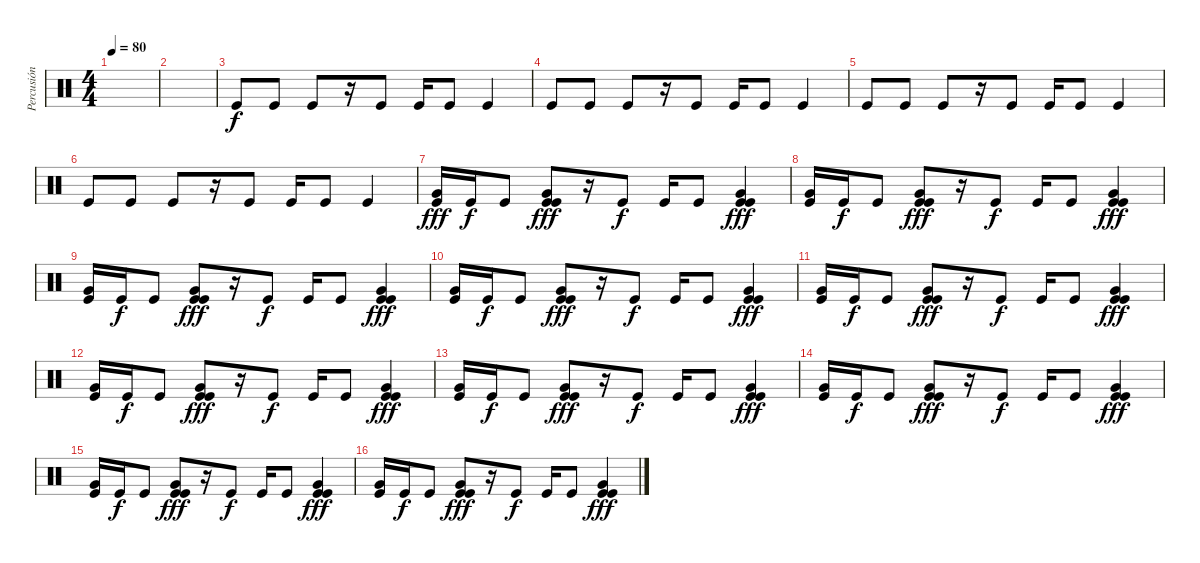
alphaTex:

\track ("Percusión" "Percusión") {instrument percussion}
\staff {score}
\articulation defaults
\ts (4 4)
\tempo 80
\clef neutral
\ks c
|
|
"Kick (hit)".8 "Kick (hit)".8 "Kick (hit)".8 r.16 "Kick (hit)".8 "Kick (hit)".16 "Kick (hit)".8 "Kick (hit)".4 |
"Kick (hit)".8 "Kick (hit)".8 "Kick (hit)".8 r.16 "Kick (hit)".8 "Kick (hit)".16 "Kick (hit)".8 "Kick (hit)".4 |
"Kick (hit)".8 "Kick (hit)".8 "Kick (hit)".8 r.16 "Kick (hit)".8 "Kick (hit)".16 "Kick (hit)".8 "Kick (hit)".4 |
"Kick (hit)".8 "Kick (hit)".8 "Kick (hit)".8 r.16 "Kick (hit)".8 "Kick (hit)".16 "Kick (hit)".8 "Kick (hit)".4 |
("Kick (hit)" "Very Low Tom (hit)").16{dy fff} "Kick (hit)".16{dy f} "Kick (hit)".8 ("Kick (hit)" "Very Low Tom (hit)" "Kick (hit)").8{dy fff} r.16 "Kick (hit)".8{dy f} "Kick (hit)".16 "Kick (hit)".8 ("Kick (hit)" "Very Low Tom (hit)" "Kick (hit)").4{dy fff} |
("Kick (hit)" "Very Low Tom (hit)").16 "Kick (hit)".16{dy f} "Kick (hit)".8 ("Kick (hit)" "Very Low Tom (hit)" "Kick (hit)").8{dy fff} r.16 "Kick (hit)".8{dy f} "Kick (hit)".16 "Kick (hit)".8 ("Kick (hit)" "Very Low Tom (hit)" "Kick (hit)").4{dy fff} |
("Kick (hit)" "Very Low Tom (hit)").16 "Kick (hit)".16{dy f} "Kick (hit)".8 ("Kick (hit)" "Very Low Tom (hit)" "Kick (hit)").8{dy fff} r.16 "Kick (hit)".8{dy f} "Kick (hit)".16 "Kick (hit)".8 ("Kick (hit)" "Very Low Tom (hit)" "Kick (hit)").4{dy fff} |
("Kick (hit)" "Very Low Tom (hit)").16 "Kick (hit)".16{dy f} "Kick (hit)".8 ("Kick (hit)" "Very Low Tom (hit)" "Kick (hit)").8{dy fff} r.16 "Kick (hit)".8{dy f} "Kick (hit)".16 "Kick (hit)".8 ("Kick (hit)" "Very Low Tom (hit)" "Kick (hit)").4{dy fff} |
("Kick (hit)" "Very Low Tom (hit)").16 "Kick (hit)".16{dy f} "Kick (hit)".8 ("Kick (hit)" "Very Low Tom (hit)" "Kick (hit)").8{dy fff} r.16 "Kick (hit)".8{dy f} "Kick (hit)".16 "Kick (hit)".8 ("Kick (hit)" "Very Low Tom (hit)" "Kick (hit)").4{dy fff} |
("Kick (hit)" "Very Low Tom (hit)").16 "Kick (hit)".16{dy f} "Kick (hit)".8 ("Kick (hit)" "Very Low Tom (hit)" "Kick (hit)").8{dy fff} r.16 "Kick (hit)".8{dy f} "Kick (hit)".16 "Kick (hit)".8 ("Kick (hit)" "Very Low Tom (hit)" "Kick (hit)").4{dy fff} |
("Kick (hit)" "Very Low Tom (hit)").16 "Kick (hit)".16{dy f} "Kick (hit)".8 ("Kick (hit)" "Very Low Tom (hit)" "Kick (hit)").8{dy fff} r.16 "Kick (hit)".8{dy f} "Kick (hit)".16 "Kick (hit)".8 ("Kick (hit)" "Very Low Tom (hit)" "Kick (hit)").4{dy fff} |
("Kick (hit)" "Very Low Tom (hit)").16 "Kick (hit)".16{dy f} "Kick (hit)".8 ("Kick (hit)" "Very Low Tom (hit)" "Kick (hit)").8{dy fff} r.16 "Kick (hit)".8{dy f} "Kick (hit)".16 "Kick (hit)".8 ("Kick (hit)" "Very Low Tom (hit)" "Kick (hit)").4{dy fff} |
("Kick (hit)" "Very Low Tom (hit)").16 "Kick (hit)".16{dy f} "Kick (hit)".8 ("Kick (hit)" "Very Low Tom (hit)" "Kick (hit)").8{dy fff} r.16 "Kick (hit)".8{dy f} "Kick (hit)".16 "Kick (hit)".8 ("Kick (hit)" "Very Low Tom (hit)" "Kick (hit)").4{dy fff} |
("Kick (hit)" "Very Low Tom (hit)").16 "Kick (hit)".16{dy f} "Kick (hit)".8 ("Kick (hit)" "Very Low Tom (hit)" "Kick (hit)").8{dy fff} r.16 "Kick (hit)".8{dy f} "Kick (hit)".16 "Kick (hit)".8 ("Kick (hit)" "Very Low Tom (hit)" "Kick (hit)").4{dy fff}
